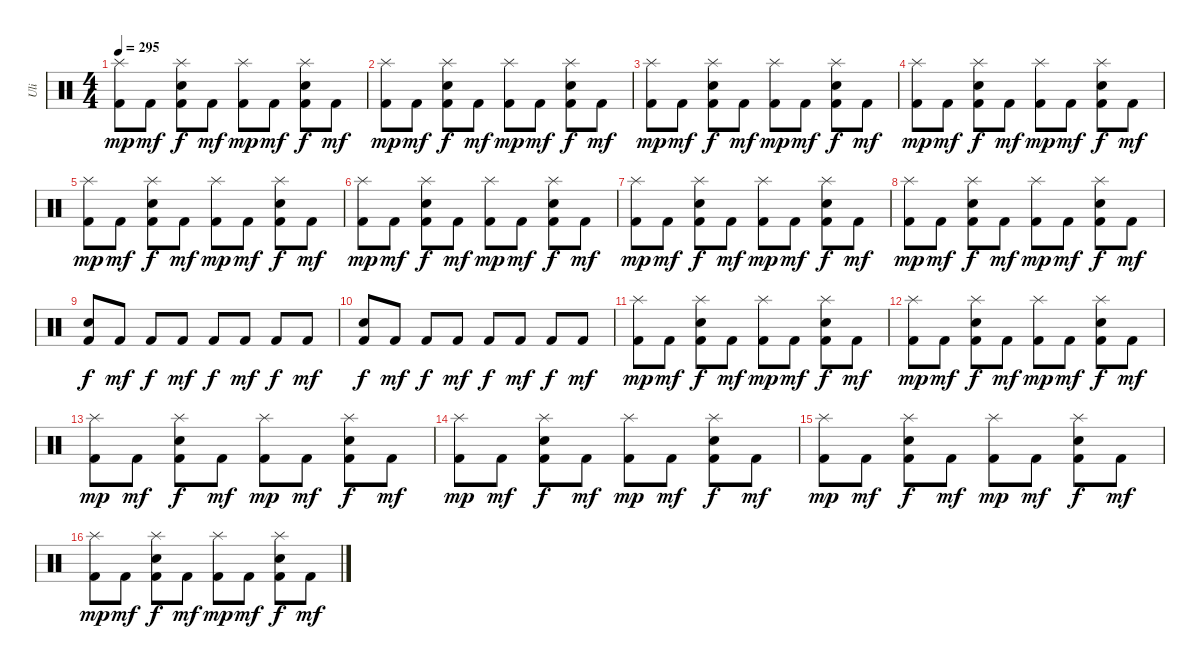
\track ("Uli" "Uli") {instrument percussion}
\staff {score}
\articulation defaults
\ts (4 4)
\tempo 295
\clef neutral
\ks c
("Splash (hit)" "Kick (hit) 2").8{dy mp} "Kick (hit) 2".8{dy mf} ("Splash (hit)" "Electric Snare (hit)" "Kick (hit) 2").8{dy f} "Kick (hit) 2".8{dy mf} ("Splash (hit)" "Kick (hit) 2").8{dy mp} "Kick (hit) 2".8{dy mf} ("Splash (hit)" "Electric Snare (hit)" "Kick (hit) 2").8{dy f} "Kick (hit) 2".8{dy mf} |
("Splash (hit)" "Kick (hit) 2").8{dy mp} "Kick (hit) 2".8{dy mf} ("Splash (hit)" "Electric Snare (hit)" "Kick (hit) 2").8{dy f} "Kick (hit) 2".8{dy mf} ("Splash (hit)" "Kick (hit) 2").8{dy mp} "Kick (hit) 2".8{dy mf} ("Splash (hit)" "Electric Snare (hit)" "Kick (hit) 2").8{dy f} "Kick (hit) 2".8{dy mf} |
("Splash (hit)" "Kick (hit) 2").8{dy mp} "Kick (hit) 2".8{dy mf} ("Splash (hit)" "Electric Snare (hit)" "Kick (hit) 2").8{dy f} "Kick (hit) 2".8{dy mf} ("Splash (hit)" "Kick (hit) 2").8{dy mp} "Kick (hit) 2".8{dy mf} ("Splash (hit)" "Electric Snare (hit)" "Kick (hit) 2").8{dy f} "Kick (hit) 2".8{dy mf} |
("Splash (hit)" "Kick (hit) 2").8{dy mp} "Kick (hit) 2".8{dy mf} ("Splash (hit)" "Electric Snare (hit)" "Kick (hit) 2").8{dy f} "Kick (hit) 2".8{dy mf} ("Splash (hit)" "Kick (hit) 2").8{dy mp} "Kick (hit) 2".8{dy mf} ("Splash (hit)" "Electric Snare (hit)" "Kick (hit) 2").8{dy f} "Kick (hit) 2".8{dy mf} |
("Splash (hit)" "Kick (hit) 2").8{dy mp} "Kick (hit) 2".8{dy mf} ("Splash (hit)" "Electric Snare (hit)" "Kick (hit) 2").8{dy f} "Kick (hit) 2".8{dy mf} ("Splash (hit)" "Kick (hit) 2").8{dy mp} "Kick (hit) 2".8{dy mf} ("Splash (hit)" "Electric Snare (hit)" "Kick (hit) 2").8{dy f} "Kick (hit) 2".8{dy mf} |
("Splash (hit)" "Kick (hit) 2").8{dy mp} "Kick (hit) 2".8{dy mf} ("Splash (hit)" "Electric Snare (hit)" "Kick (hit) 2").8{dy f} "Kick (hit) 2".8{dy mf} ("Splash (hit)" "Kick (hit) 2").8{dy mp} "Kick (hit) 2".8{dy mf} ("Splash (hit)" "Electric Snare (hit)" "Kick (hit) 2").8{dy f} "Kick (hit) 2".8{dy mf} |
("Splash (hit)" "Kick (hit) 2").8{dy mp} "Kick (hit) 2".8{dy mf} ("Splash (hit)" "Electric Snare (hit)" "Kick (hit) 2").8{dy f} "Kick (hit) 2".8{dy mf} ("Splash (hit)" "Kick (hit) 2").8{dy mp} "Kick (hit) 2".8{dy mf} ("Splash (hit)" "Electric Snare (hit)" "Kick (hit) 2").8{dy f} "Kick (hit) 2".8{dy mf} |
("Splash (hit)" "Kick (hit) 2").8{dy mp} "Kick (hit) 2".8{dy mf} ("Splash (hit)" "Electric Snare (hit)" "Kick (hit) 2").8{dy f} "Kick (hit) 2".8{dy mf} ("Splash (hit)" "Kick (hit) 2").8{dy mp} "Kick (hit) 2".8{dy mf} ("Splash (hit)" "Electric Snare (hit)" "Kick (hit) 2").8{dy f} "Kick (hit) 2".8{dy mf} |
("Electric Snare (hit)" "Kick (hit) 2").8{dy f} "Kick (hit) 2".8{dy mf} "Kick (hit) 2".8{dy f} "Kick (hit) 2".8{dy mf} "Kick (hit) 2".8{dy f} "Kick (hit) 2".8{dy mf} "Kick (hit) 2".8{dy f} "Kick (hit) 2".8{dy mf} |
("Electric Snare (hit)" "Kick (hit) 2").8{dy f} "Kick (hit) 2".8{dy mf} "Kick (hit) 2".8{dy f} "Kick (hit) 2".8{dy mf} "Kick (hit) 2".8{dy f} "Kick (hit) 2".8{dy mf} "Kick (hit) 2".8{dy f} "Kick (hit) 2".8{dy mf} |
("Splash (hit)" "Kick (hit) 2").8{dy mp} "Kick (hit) 2".8{dy mf} ("Splash (hit)" "Electric Snare (hit)" "Kick (hit) 2").8{dy f} "Kick (hit) 2".8{dy mf} ("Splash (hit)" "Kick (hit) 2").8{dy mp} "Kick (hit) 2".8{dy mf} ("Splash (hit)" "Electric Snare (hit)" "Kick (hit) 2").8{dy f} "Kick (hit) 2".8{dy mf} |
("Splash (hit)" "Kick (hit) 2").8{dy mp} "Kick (hit) 2".8{dy mf} ("Splash (hit)" "Electric Snare (hit)" "Kick (hit) 2").8{dy f} "Kick (hit) 2".8{dy mf} ("Splash (hit)" "Kick (hit) 2").8{dy mp} "Kick (hit) 2".8{dy mf} ("Splash (hit)" "Electric Snare (hit)" "Kick (hit) 2").8{dy f} "Kick (hit) 2".8{dy mf} |
("Splash (hit)" "Kick (hit) 2").8{dy mp} "Kick (hit) 2".8{dy mf} ("Splash (hit)" "Electric Snare (hit)" "Kick (hit) 2").8{dy f} "Kick (hit) 2".8{dy mf} ("Splash (hit)" "Kick (hit) 2").8{dy mp} "Kick (hit) 2".8{dy mf} ("Splash (hit)" "Electric Snare (hit)" "Kick (hit) 2").8{dy f} "Kick (hit) 2".8{dy mf} |
("Splash (hit)" "Kick (hit) 2").8{dy mp} "Kick (hit) 2".8{dy mf} ("Splash (hit)" "Electric Snare (hit)" "Kick (hit) 2").8{dy f} "Kick (hit) 2".8{dy mf} ("Splash (hit)" "Kick (hit) 2").8{dy mp} "Kick (hit) 2".8{dy mf} ("Splash (hit)" "Electric Snare (hit)" "Kick (hit) 2").8{dy f} "Kick (hit) 2".8{dy mf} |
("Splash (hit)" "Kick (hit) 2").8{dy mp} "Kick (hit) 2".8{dy mf} ("Splash (hit)" "Electric Snare (hit)" "Kick (hit) 2").8{dy f} "Kick (hit) 2".8{dy mf} ("Splash (hit)" "Kick (hit) 2").8{dy mp} "Kick (hit) 2".8{dy mf} ("Splash (hit)" "Electric Snare (hit)" "Kick (hit) 2").8{dy f} "Kick (hit) 2".8{dy mf} |
("Splash (hit)" "Kick (hit) 2").8{dy mp} "Kick (hit) 2".8{dy mf} ("Splash (hit)" "Electric Snare (hit)" "Kick (hit) 2").8{dy f} "Kick (hit) 2".8{dy mf} ("Splash (hit)" "Kick (hit) 2").8{dy mp} "Kick (hit) 2".8{dy mf} ("Splash (hit)" "Electric Snare (hit)" "Kick (hit) 2").8{dy f} "Kick (hit) 2".8{dy mf}
